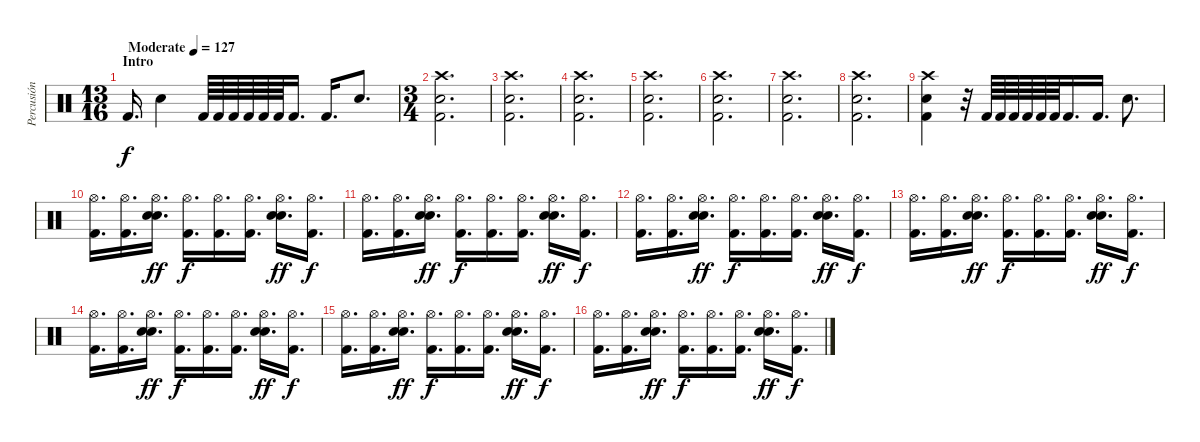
\track ("Percusión" "Percusión") {instrument percussion}
\staff {score}
\articulation defaults
\ts (13 16)
\section ("" "Intro")
\tempo (127 "Moderate")
\clef neutral
\ks c "Kick (hit) 2".16{d dy f} "Snare (hit) 2".4 "Kick (hit) 2".64 "Kick (hit) 2".64 "Kick (hit) 2".64 "Kick (hit) 2".64 "Kick (hit) 2".64 "Kick (hit) 2".64 "Kick (hit) 2".16{d} "Kick (hit) 2".16{d} "Snare (hit) 2".8{d}
|
\ts (3 4)
("Crash high (hit)" "Snare (hit) 2" "Kick (hit) 2").2{d} |
("Crash high (hit)" "Snare (hit) 2" "Kick (hit) 2").2{d} |
("Crash high (hit)" "Snare (hit) 2" "Kick (hit) 2").2{d} |
("Crash high (hit)" "Snare (hit) 2" "Kick (hit) 2").2{d} |
("Crash high (hit)" "Snare (hit) 2" "Kick (hit) 2").2{d} |
("Crash high (hit)" "Snare (hit) 2" "Kick (hit) 2").2{d} |
("Crash high (hit)" "Snare (hit) 2" "Kick (hit) 2").2{d} |
("Crash high (hit)" "Snare (hit) 2" "Kick (hit) 2").4 r.32 "Kick (hit) 2".64 "Kick (hit) 2".64 "Kick (hit) 2".64 "Kick (hit) 2".64 "Kick (hit) 2".64 "Kick (hit) 2".64 "Kick (hit) 2".16{d} "Kick (hit) 2".16{d} "Snare (hit) 2".8{d} |
("Hi-Hat (open)" "Kick (hit) 2").16{d} ("Hi-Hat (open)" "Kick (hit) 2").16{d} ("Hi-Hat (open)" "Snare (hit) 2" "Snare (hit) 2").16{d dy ff} ("Hi-Hat (open)" "Kick (hit) 2").16{d dy f} ("Hi-Hat (open)" "Kick (hit) 2").16{d} ("Hi-Hat (open)" "Kick (hit) 2").16{d} ("Hi-Hat (open)" "Snare (hit) 2" "Snare (hit) 2").16{d dy ff} ("Hi-Hat (open)" "Kick (hit) 2").16{d dy f} |
("Hi-Hat (open)" "Kick (hit) 2").16{d} ("Hi-Hat (open)" "Kick (hit) 2").16{d} ("Hi-Hat (open)" "Snare (hit) 2" "Snare (hit) 2").16{d dy ff} ("Hi-Hat (open)" "Kick (hit) 2").16{d dy f} ("Hi-Hat (open)" "Kick (hit) 2").16{d} ("Hi-Hat (open)" "Kick (hit) 2").16{d} ("Hi-Hat (open)" "Snare (hit) 2" "Snare (hit) 2").16{d dy ff} ("Hi-Hat (open)" "Kick (hit) 2").16{d dy f} |
("Hi-Hat (open)" "Kick (hit) 2").16{d} ("Hi-Hat (open)" "Kick (hit) 2").16{d} ("Hi-Hat (open)" "Snare (hit) 2" "Snare (hit) 2").16{d dy ff} ("Hi-Hat (open)" "Kick (hit) 2").16{d dy f} ("Hi-Hat (open)" "Kick (hit) 2").16{d} ("Hi-Hat (open)" "Kick (hit) 2").16{d} ("Hi-Hat (open)" "Snare (hit) 2" "Snare (hit) 2").16{d dy ff} ("Hi-Hat (open)" "Kick (hit) 2").16{d dy f} |
("Hi-Hat (open)" "Kick (hit) 2").16{d} ("Hi-Hat (open)" "Kick (hit) 2").16{d} ("Hi-Hat (open)" "Snare (hit) 2" "Snare (hit) 2").16{d dy ff} ("Hi-Hat (open)" "Kick (hit) 2").16{d dy f} ("Hi-Hat (open)" "Kick (hit) 2").16{d} ("Hi-Hat (open)" "Kick (hit) 2").16{d} ("Hi-Hat (open)" "Snare (hit) 2" "Snare (hit) 2").16{d dy ff} ("Hi-Hat (open)" "Kick (hit) 2").16{d dy f} |
("Hi-Hat (open)" "Kick (hit) 2").16{d} ("Hi-Hat (open)" "Kick (hit) 2").16{d} ("Hi-Hat (open)" "Snare (hit) 2" "Snare (hit) 2").16{d dy ff} ("Hi-Hat (open)" "Kick (hit) 2").16{d dy f} ("Hi-Hat (open)" "Kick (hit) 2").16{d} ("Hi-Hat (open)" "Kick (hit) 2").16{d} ("Hi-Hat (open)" "Snare (hit) 2" "Snare (hit) 2").16{d dy ff} ("Hi-Hat (open)" "Kick (hit) 2").16{d dy f} |
("Hi-Hat (open)" "Kick (hit) 2").16{d} ("Hi-Hat (open)" "Kick (hit) 2").16{d} ("Hi-Hat (open)" "Snare (hit) 2" "Snare (hit) 2").16{d dy ff} ("Hi-Hat (open)" "Kick (hit) 2").16{d dy f} ("Hi-Hat (open)" "Kick (hit) 2").16{d} ("Hi-Hat (open)" "Kick (hit) 2").16{d} ("Hi-Hat (open)" "Snare (hit) 2" "Snare (hit) 2").16{d dy ff} ("Hi-Hat (open)" "Kick (hit) 2").16{d dy f} |
("Hi-Hat (open)" "Kick (hit) 2").16{d} ("Hi-Hat (open)" "Kick (hit) 2").16{d} ("Hi-Hat (open)" "Snare (hit) 2" "Snare (hit) 2").16{d dy ff} ("Hi-Hat (open)" "Kick (hit) 2").16{d dy f} ("Hi-Hat (open)" "Kick (hit) 2").16{d} ("Hi-Hat (open)" "Kick (hit) 2").16{d} ("Hi-Hat (open)" "Snare (hit) 2" "Snare (hit) 2").16{d dy ff} ("Hi-Hat (open)" "Kick (hit) 2").16{d dy f}
